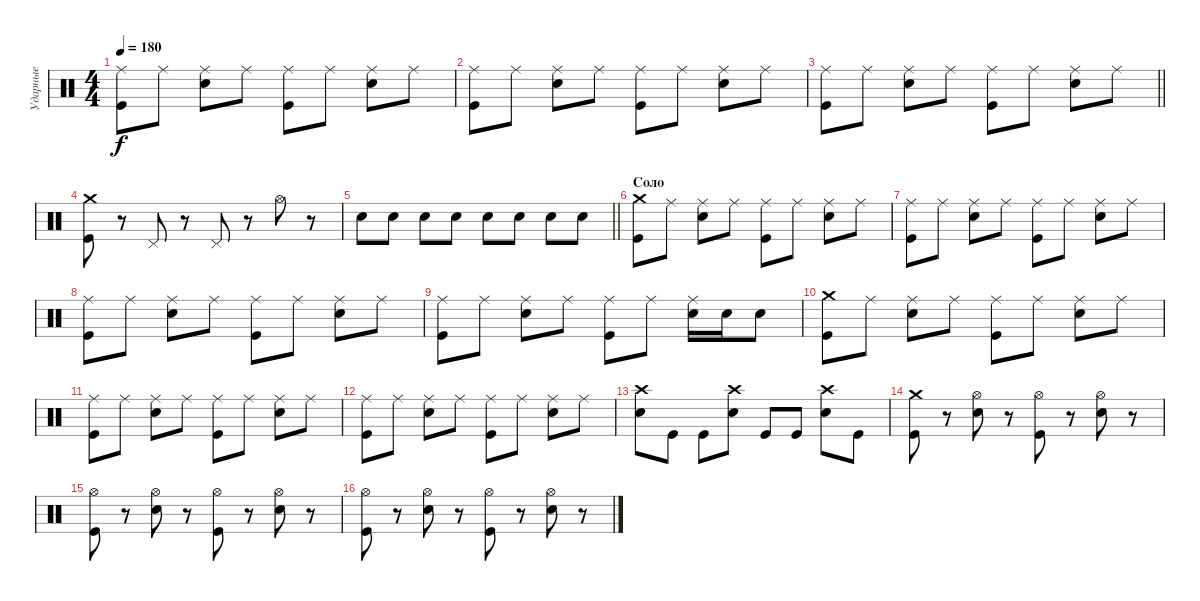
\track ("Ударные" "Ударные") {instrument percussion}
\staff {score}
\articulation defaults
\ts (4 4)
\tempo 180
\clef neutral
\ks c
("Ride (middle)" "Kick (hit)").8{dy f} "Ride (middle)".8 ("Ride (middle)" "Electric Snare (hit)").8 "Ride (middle)".8 ("Ride (middle)" "Kick (hit)").8 "Ride (middle)".8 ("Ride (middle)" "Electric Snare (hit)").8 "Ride (middle)".8 |
("Ride (middle)" "Kick (hit)").8 "Ride (middle)".8 ("Ride (middle)" "Electric Snare (hit)").8 "Ride (middle)".8 ("Ride (middle)" "Kick (hit)").8 "Ride (middle)".8 ("Ride (middle)" "Electric Snare (hit)").8 "Ride (middle)".8 |
\barLineRight lightlight
("Ride (middle)" "Kick (hit)").8 "Ride (middle)".8 ("Ride (middle)" "Electric Snare (hit)").8 "Ride (middle)".8 ("Ride (middle)" "Kick (hit)").8 "Ride (middle)".8 ("Ride (middle)" "Electric Snare (hit)").8 "Ride (middle)".8 |
("Crash medium (hit)" "Kick (hit)").8 r.8 "Pedal Hi-Hat (hit)".8 r.8 "Pedal Hi-Hat (hit)".8 r.8 "Hi-Hat (open)".8 r.8 |
\barLineRight lightlight "Electric Snare (hit)".8 "Electric Snare (hit)".8 "Electric Snare (hit)".8 "Electric Snare (hit)".8 "Electric Snare (hit)".8 "Electric Snare (hit)".8 "Electric Snare (hit)".8 "Electric Snare (hit)".8
|
\section ("" "Соло")
("Crash medium (hit)" "Kick (hit)").8 "Ride (middle)".8 ("Ride (middle)" "Electric Snare (hit)").8 "Ride (middle)".8 ("Ride (middle)" "Kick (hit)").8 "Ride (middle)".8 ("Ride (middle)" "Electric Snare (hit)").8 "Ride (middle)".8 |
("Ride (middle)" "Kick (hit)").8 "Ride (middle)".8 ("Ride (middle)" "Electric Snare (hit)").8 "Ride (middle)".8 ("Ride (middle)" "Kick (hit)").8 "Ride (middle)".8 ("Ride (middle)" "Electric Snare (hit)").8 "Ride (middle)".8 |
("Ride (middle)" "Kick (hit)").8 "Ride (middle)".8 ("Ride (middle)" "Electric Snare (hit)").8 "Ride (middle)".8 ("Ride (middle)" "Kick (hit)").8 "Ride (middle)".8 ("Ride (middle)" "Electric Snare (hit)").8 "Ride (middle)".8 |
("Ride (middle)" "Kick (hit)").8 "Ride (middle)".8 ("Ride (middle)" "Electric Snare (hit)").8 "Ride (middle)".8 ("Ride (middle)" "Kick (hit)").8 "Ride (middle)".8 ("Ride (middle)" "Electric Snare (hit)").16 "Electric Snare (hit)".16 "Electric Snare (hit)".8 |
("Crash medium (hit)" "Kick (hit)").8 "Ride (middle)".8 ("Ride (middle)" "Electric Snare (hit)").8 "Ride (middle)".8 ("Ride (middle)" "Kick (hit)").8 "Ride (middle)".8 ("Ride (middle)" "Electric Snare (hit)").8 "Ride (middle)".8 |
("Ride (middle)" "Kick (hit)").8 "Ride (middle)".8 ("Ride (middle)" "Electric Snare (hit)").8 "Ride (middle)".8 ("Ride (middle)" "Kick (hit)").8 "Ride (middle)".8 ("Ride (middle)" "Electric Snare (hit)").8 "Ride (middle)".8 |
("Ride (middle)" "Kick (hit)").8 "Ride (middle)".8 ("Ride (middle)" "Electric Snare (hit)").8 "Ride (middle)".8 ("Ride (middle)" "Kick (hit)").8 "Ride (middle)".8 ("Ride (middle)" "Electric Snare (hit)").8 "Ride (middle)".8 |
("Crash high (hit)" "Electric Snare (hit)").8 "Kick (hit)".8 "Kick (hit)".8 ("Crash high (hit)" "Electric Snare (hit)").8 "Kick (hit)".8 "Kick (hit)".8 ("Crash high (hit)" "Electric Snare (hit)").8 "Kick (hit)".8 |
("Crash medium (hit)" "Kick (hit)").8 r.8 ("Hi-Hat (open)" "Electric Snare (hit)").8 r.8 ("Hi-Hat (open)" "Kick (hit)").8 r.8 ("Hi-Hat (open)" "Electric Snare (hit)").8 r.8 |
("Hi-Hat (open)" "Kick (hit)").8 r.8 ("Hi-Hat (open)" "Electric Snare (hit)").8 r.8 ("Hi-Hat (open)" "Kick (hit)").8 r.8 ("Hi-Hat (open)" "Electric Snare (hit)").8 r.8 |
("Hi-Hat (open)" "Kick (hit)").8 r.8 ("Hi-Hat (open)" "Electric Snare (hit)").8 r.8 ("Hi-Hat (open)" "Kick (hit)").8 r.8 ("Hi-Hat (open)" "Electric Snare (hit)").8 r.8
